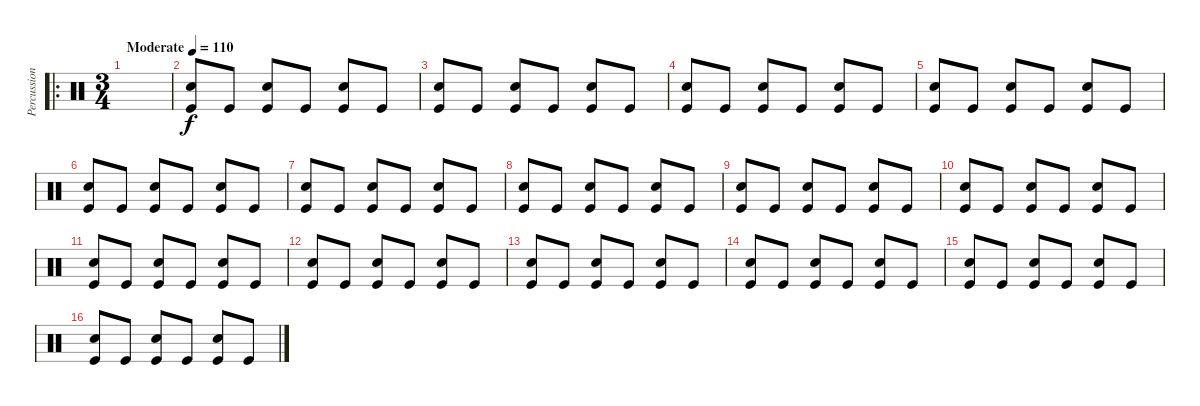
\track ("Percussion" "Percussion") {instrument percussion}
\staff {score}
\articulation defaults
\ro
\ts (3 4)
\tempo (110 "Moderate")
\clef neutral
\ks c
|
("Kick (hit)" "Snare (hit) 2").8 "Kick (hit)".8 ("Kick (hit)" "Snare (hit) 2").8 "Kick (hit)".8 ("Kick (hit)" "Snare (hit) 2").8 "Kick (hit)".8 |
("Kick (hit)" "Snare (hit) 2").8 "Kick (hit)".8 ("Kick (hit)" "Snare (hit) 2").8 "Kick (hit)".8 ("Kick (hit)" "Snare (hit) 2").8 "Kick (hit)".8 |
("Kick (hit)" "Snare (hit) 2").8 "Kick (hit)".8 ("Kick (hit)" "Snare (hit) 2").8 "Kick (hit)".8 ("Kick (hit)" "Snare (hit) 2").8 "Kick (hit)".8 |
("Kick (hit)" "Snare (hit) 2").8 "Kick (hit)".8 ("Kick (hit)" "Snare (hit) 2").8 "Kick (hit)".8 ("Kick (hit)" "Snare (hit) 2").8 "Kick (hit)".8 |
("Kick (hit)" "Snare (hit) 2").8 "Kick (hit)".8 ("Kick (hit)" "Snare (hit) 2").8 "Kick (hit)".8 ("Kick (hit)" "Snare (hit) 2").8 "Kick (hit)".8 |
("Kick (hit)" "Snare (hit) 2").8 "Kick (hit)".8 ("Kick (hit)" "Snare (hit) 2").8 "Kick (hit)".8 ("Kick (hit)" "Snare (hit) 2").8 "Kick (hit)".8 |
("Kick (hit)" "Snare (hit) 2").8 "Kick (hit)".8 ("Kick (hit)" "Snare (hit) 2").8 "Kick (hit)".8 ("Kick (hit)" "Snare (hit) 2").8 "Kick (hit)".8 |
("Kick (hit)" "Snare (hit) 2").8 "Kick (hit)".8 ("Kick (hit)" "Snare (hit) 2").8 "Kick (hit)".8 ("Kick (hit)" "Snare (hit) 2").8 "Kick (hit)".8 |
("Kick (hit)" "Snare (hit) 2").8 "Kick (hit)".8 ("Kick (hit)" "Snare (hit) 2").8 "Kick (hit)".8 ("Kick (hit)" "Snare (hit) 2").8 "Kick (hit)".8 |
("Kick (hit)" "Snare (hit) 2").8 "Kick (hit)".8 ("Kick (hit)" "Snare (hit) 2").8 "Kick (hit)".8 ("Kick (hit)" "Snare (hit) 2").8 "Kick (hit)".8 |
("Kick (hit)" "Snare (hit) 2").8 "Kick (hit)".8 ("Kick (hit)" "Snare (hit) 2").8 "Kick (hit)".8 ("Kick (hit)" "Snare (hit) 2").8 "Kick (hit)".8 |
("Kick (hit)" "Snare (hit) 2").8 "Kick (hit)".8 ("Kick (hit)" "Snare (hit) 2").8 "Kick (hit)".8 ("Kick (hit)" "Snare (hit) 2").8 "Kick (hit)".8 |
("Kick (hit)" "Snare (hit) 2").8 "Kick (hit)".8 ("Kick (hit)" "Snare (hit) 2").8 "Kick (hit)".8 ("Kick (hit)" "Snare (hit) 2").8 "Kick (hit)".8 |
("Kick (hit)" "Snare (hit) 2").8 "Kick (hit)".8 ("Kick (hit)" "Snare (hit) 2").8 "Kick (hit)".8 ("Kick (hit)" "Snare (hit) 2").8 "Kick (hit)".8 |
("Kick (hit)" "Snare (hit) 2").8 "Kick (hit)".8 ("Kick (hit)" "Snare (hit) 2").8 "Kick (hit)".8 ("Kick (hit)" "Snare (hit) 2").8 "Kick (hit)".8
